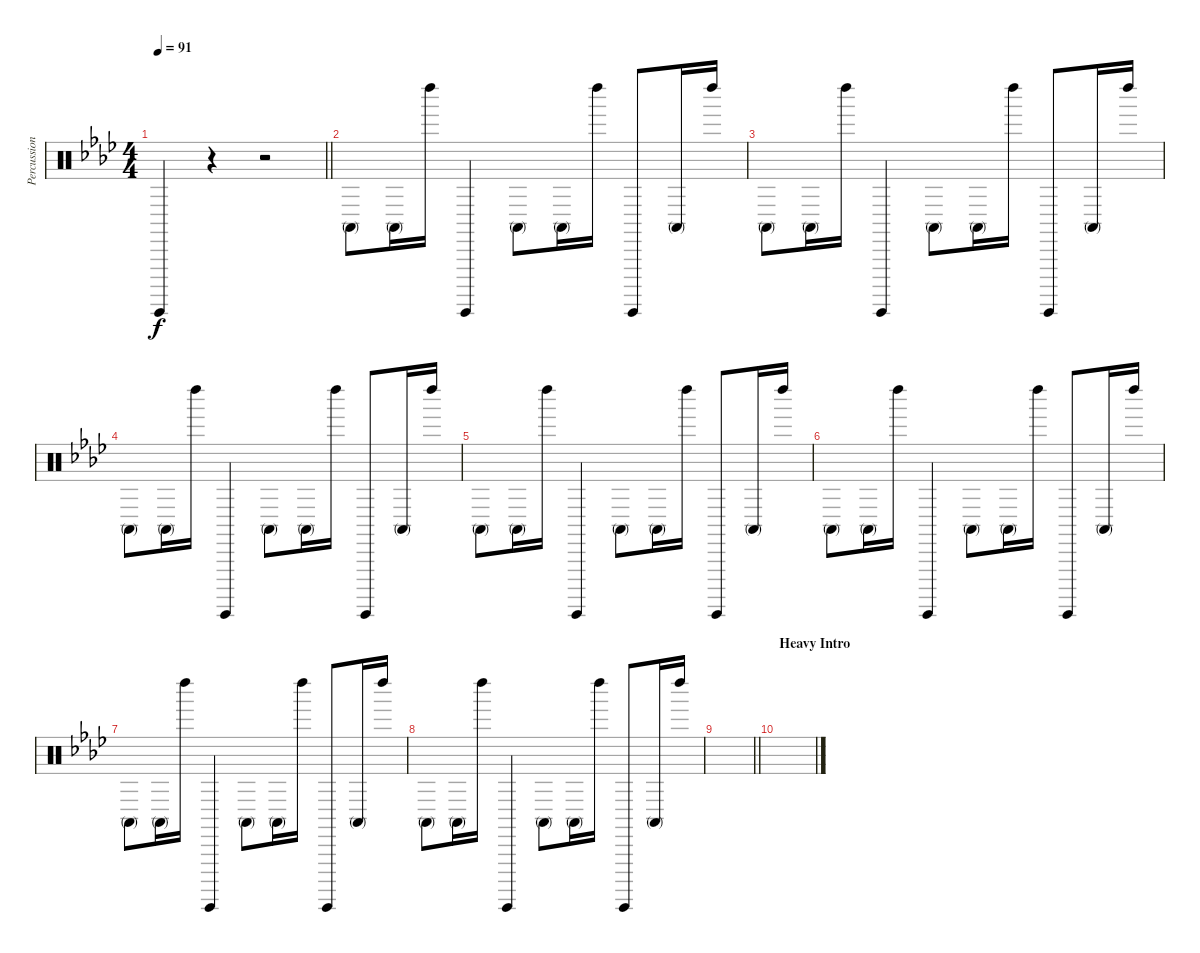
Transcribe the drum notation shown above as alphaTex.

\track ("Percussion" "Percussion") {instrument percussion}
\staff {score}
\articulation defaults
\ts (4 4)
\tempo 91
\clef neutral
\barLineRight lightlight
\ks fminor "Guiro (hit)".4{dy f}
r.4 r.2 |
\section ("" " ")
"Conga high (mute)".8 "Conga high (mute)".16 "Left Maraca (hit)".16 "Guiro (hit)".4 "Conga high (mute)".8 "Conga high (mute)".16 "Left Maraca (hit)".16 "Guiro (hit)".8 "Conga high (mute)".16 "Left Maraca (hit)".16 |
"Conga high (mute)".8 "Conga high (mute)".16 "Left Maraca (hit)".16 "Guiro (hit)".4 "Conga high (mute)".8 "Conga high (mute)".16 "Left Maraca (hit)".16 "Guiro (hit)".8 "Conga high (mute)".16 "Left Maraca (hit)".16 |
"Conga high (mute)".8 "Conga high (mute)".16 "Left Maraca (hit)".16 "Guiro (hit)".4 "Conga high (mute)".8 "Conga high (mute)".16 "Left Maraca (hit)".16 "Guiro (hit)".8 "Conga high (mute)".16 "Left Maraca (hit)".16 |
"Conga high (mute)".8 "Conga high (mute)".16 "Left Maraca (hit)".16 "Guiro (hit)".4 "Conga high (mute)".8 "Conga high (mute)".16 "Left Maraca (hit)".16 "Guiro (hit)".8 "Conga high (mute)".16 "Left Maraca (hit)".16 |
"Conga high (mute)".8 "Conga high (mute)".16 "Left Maraca (hit)".16 "Guiro (hit)".4 "Conga high (mute)".8 "Conga high (mute)".16 "Left Maraca (hit)".16 "Guiro (hit)".8 "Conga high (mute)".16 "Left Maraca (hit)".16 |
"Conga high (mute)".8 "Conga high (mute)".16 "Left Maraca (hit)".16 "Guiro (hit)".4 "Conga high (mute)".8 "Conga high (mute)".16 "Left Maraca (hit)".16 "Guiro (hit)".8 "Conga high (mute)".16 "Left Maraca (hit)".16 |
"Conga high (mute)".8 "Conga high (mute)".16 "Left Maraca (hit)".16 "Guiro (hit)".4 "Conga high (mute)".8 "Conga high (mute)".16 "Left Maraca (hit)".16 "Guiro (hit)".8 "Conga high (mute)".16 "Left Maraca (hit)".16 |
\barLineRight lightlight
|
\section ("" "Heavy Intro")
